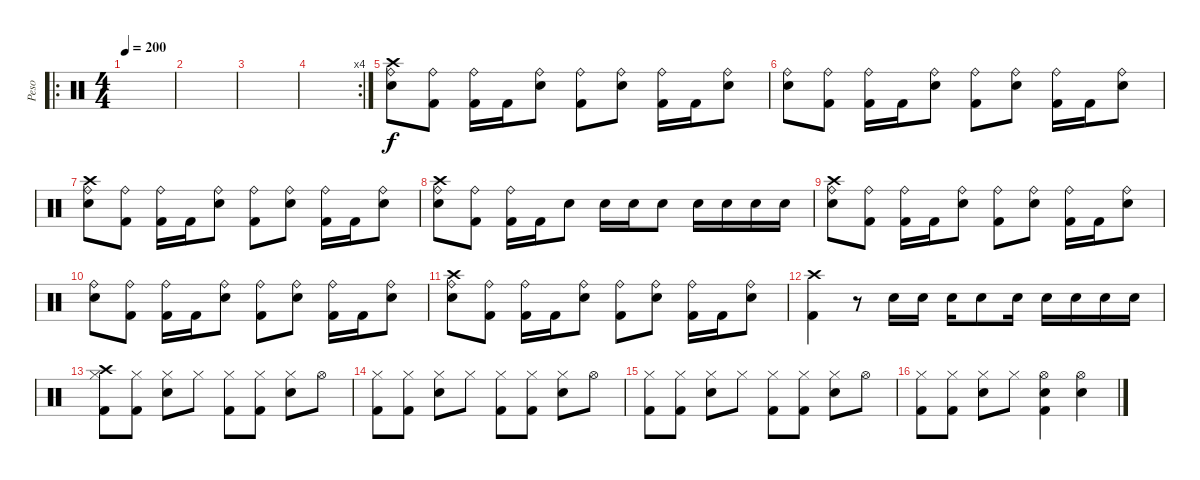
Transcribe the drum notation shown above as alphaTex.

\track ("Peso" "Peso") {instrument percussion}
\staff {score}
\articulation defaults
\ro
\ts (4 4)
\tempo 200
\clef neutral
\ks c
|
|
|
\rc 4
|
("Crash high (hit)" "Ride (bell)" "Snare (hit) 2").8 ("Ride (bell)" "Kick (hit) 2").8 ("Ride (bell)" "Kick (hit) 2").16 "Kick (hit) 2".16 ("Ride (bell)" "Snare (hit) 2").8 ("Ride (bell)" "Kick (hit) 2").8 ("Ride (bell)" "Snare (hit) 2").8 ("Ride (bell)" "Kick (hit) 2").16 "Kick (hit) 2".16 ("Ride (bell)" "Snare (hit) 2").8 |
("Ride (bell)" "Snare (hit) 2").8 ("Ride (bell)" "Kick (hit) 2").8 ("Ride (bell)" "Kick (hit) 2").16 "Kick (hit) 2".16 ("Ride (bell)" "Snare (hit) 2").8 ("Ride (bell)" "Kick (hit) 2").8 ("Ride (bell)" "Snare (hit) 2").8 ("Ride (bell)" "Kick (hit) 2").16 "Kick (hit) 2".16 ("Ride (bell)" "Snare (hit) 2").8 |
("Crash high (hit)" "Ride (bell)" "Snare (hit) 2").8 ("Ride (bell)" "Kick (hit) 2").8 ("Ride (bell)" "Kick (hit) 2").16 "Kick (hit) 2".16 ("Ride (bell)" "Snare (hit) 2").8 ("Ride (bell)" "Kick (hit) 2").8 ("Ride (bell)" "Snare (hit) 2").8 ("Ride (bell)" "Kick (hit) 2").16 "Kick (hit) 2".16 ("Ride (bell)" "Snare (hit) 2").8 |
("Crash high (hit)" "Ride (bell)" "Snare (hit) 2").8 ("Ride (bell)" "Kick (hit) 2").8 ("Ride (bell)" "Kick (hit) 2").16 "Kick (hit) 2".16 "Snare (hit) 2".8 "Snare (hit) 2".16 "Snare (hit) 2".16 "Snare (hit) 2".8 "Snare (hit) 2".16 "Snare (hit) 2".16 "Snare (hit) 2".16 "Snare (hit) 2".16 |
("Crash high (hit)" "Ride (bell)" "Snare (hit) 2").8 ("Ride (bell)" "Kick (hit) 2").8 ("Ride (bell)" "Kick (hit) 2").16 "Kick (hit) 2".16 ("Ride (bell)" "Snare (hit) 2").8 ("Ride (bell)" "Kick (hit) 2").8 ("Ride (bell)" "Snare (hit) 2").8 ("Ride (bell)" "Kick (hit) 2").16 "Kick (hit) 2".16 ("Ride (bell)" "Snare (hit) 2").8 |
("Ride (bell)" "Snare (hit) 2").8 ("Ride (bell)" "Kick (hit) 2").8 ("Ride (bell)" "Kick (hit) 2").16 "Kick (hit) 2".16 ("Ride (bell)" "Snare (hit) 2").8 ("Ride (bell)" "Kick (hit) 2").8 ("Ride (bell)" "Snare (hit) 2").8 ("Ride (bell)" "Kick (hit) 2").16 "Kick (hit) 2".16 ("Ride (bell)" "Snare (hit) 2").8 |
("Crash high (hit)" "Ride (bell)" "Snare (hit) 2").8 ("Ride (bell)" "Kick (hit) 2").8 ("Ride (bell)" "Kick (hit) 2").16 "Kick (hit) 2".16 ("Ride (bell)" "Snare (hit) 2").8 ("Ride (bell)" "Kick (hit) 2").8 ("Ride (bell)" "Snare (hit) 2").8 ("Ride (bell)" "Kick (hit) 2").16 "Kick (hit) 2".16 ("Ride (bell)" "Snare (hit) 2").8 |
("Crash high (hit)" "Kick (hit) 2").4 r.8 "Snare (hit) 2".16 "Snare (hit) 2".16 "Snare (hit) 2".16 "Snare (hit) 2".8 "Snare (hit) 2".16 "Snare (hit) 2".16 "Snare (hit) 2".16 "Snare (hit) 2".16 "Snare (hit) 2".16 |
("Crash high (hit)" "Hi-Hat (closed)" "Kick (hit) 2").8 ("Hi-Hat (closed)" "Kick (hit) 2").8 ("Hi-Hat (closed)" "Snare (hit) 2").8 "Hi-Hat (closed)".8 ("Hi-Hat (closed)" "Kick (hit) 2").8 ("Hi-Hat (closed)" "Kick (hit) 2").8 ("Hi-Hat (closed)" "Snare (hit) 2").8 "Hi-Hat (open)".8 |
("Hi-Hat (closed)" "Kick (hit) 2").8 ("Hi-Hat (closed)" "Kick (hit) 2").8 ("Hi-Hat (closed)" "Snare (hit) 2").8 "Hi-Hat (closed)".8 ("Hi-Hat (closed)" "Kick (hit) 2").8 ("Hi-Hat (closed)" "Kick (hit) 2").8 ("Hi-Hat (closed)" "Snare (hit) 2").8 "Hi-Hat (open)".8 |
("Hi-Hat (closed)" "Kick (hit) 2").8 ("Hi-Hat (closed)" "Kick (hit) 2").8 ("Hi-Hat (closed)" "Snare (hit) 2").8 "Hi-Hat (closed)".8 ("Hi-Hat (closed)" "Kick (hit) 2").8 ("Hi-Hat (closed)" "Kick (hit) 2").8 ("Hi-Hat (closed)" "Snare (hit) 2").8 "Hi-Hat (open)".8 |
("Hi-Hat (closed)" "Kick (hit) 2").8 ("Hi-Hat (closed)" "Kick (hit) 2").8 ("Hi-Hat (closed)" "Snare (hit) 2").8 "Hi-Hat (closed)".8 ("Hi-Hat (open)" "Snare (hit) 2" "Kick (hit) 2").4 ("Hi-Hat (open)" "Snare (hit) 2").4
